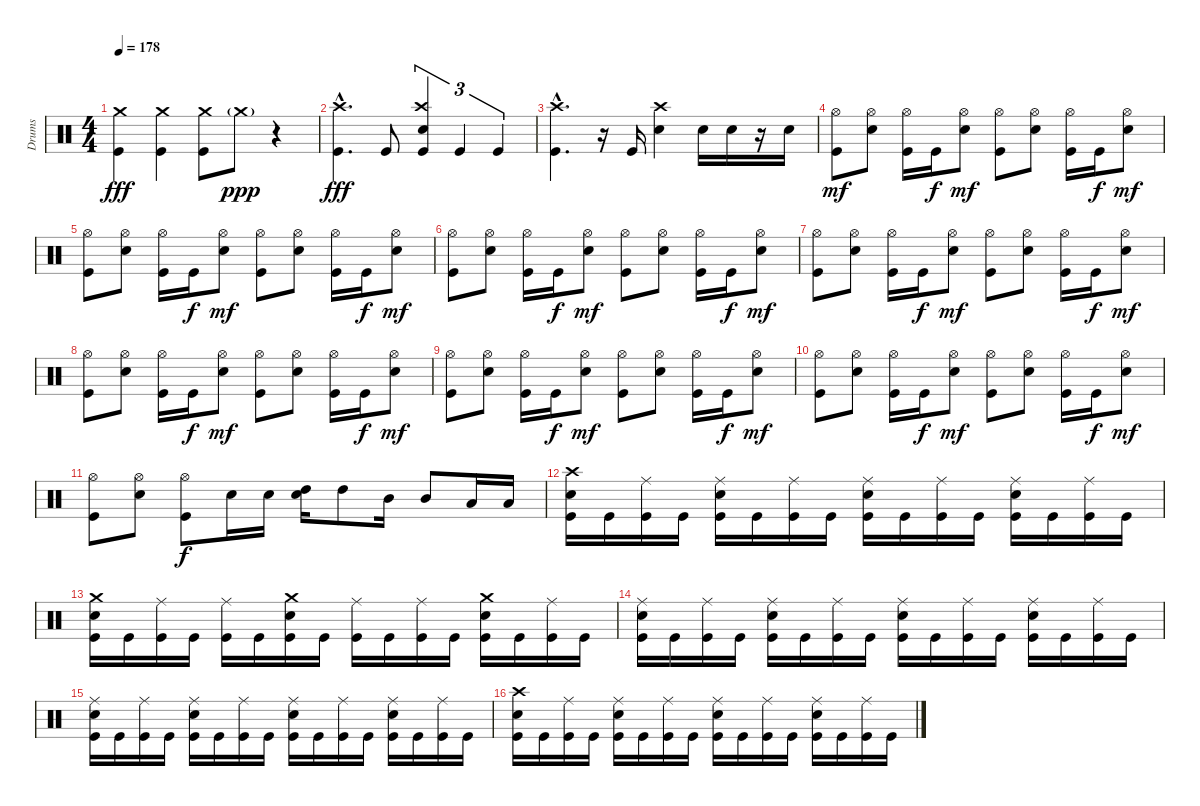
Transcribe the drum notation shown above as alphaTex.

\track ("Drums" "Drums") {instrument percussion}
\staff {score}
\articulation defaults
\ts (4 4)
\tempo 178
\clef neutral
\ks c
("Crash medium (hit)" "Kick (hit)").4{dy fff} ("Crash medium (hit)" "Kick (hit)").4 ("Crash medium (hit)" "Kick (hit)").8 "Crash medium (hit)"{g}.8{dy ppp} r.4 |
("Crash high (hit)"{hac} "Kick (hit)"{hac}).4{d dy fff} "Kick (hit)".8 ("Crash high (hit)" "Electric Snare (hit)" "Kick (hit)").4{tu (3 2)} "Kick (hit)".4{tu (3 2)} "Kick (hit)".4{tu (3 2)} |
("Crash high (hit)"{hac} "Kick (hit)"{hac}).4{d} r.16 "Kick (hit)".16 ("Crash high (hit)" "Electric Snare (hit)").4 "Electric Snare (hit)".16 "Electric Snare (hit)".16 r.16 "Electric Snare (hit)".16 |
("Hi-Hat (open)" "Kick (hit)").8{dy mf} ("Hi-Hat (open)" "Electric Snare (hit)").8 ("Hi-Hat (open)" "Kick (hit)").16 "Kick (hit)".16{dy f} ("Hi-Hat (open)" "Electric Snare (hit)").8{dy mf} ("Hi-Hat (open)" "Kick (hit)").8 ("Hi-Hat (open)" "Electric Snare (hit)").8 ("Hi-Hat (open)" "Kick (hit)").16 "Kick (hit)".16{dy f} ("Hi-Hat (open)" "Electric Snare (hit)").8{dy mf} |
("Hi-Hat (open)" "Kick (hit)").8 ("Hi-Hat (open)" "Electric Snare (hit)").8 ("Hi-Hat (open)" "Kick (hit)").16 "Kick (hit)".16{dy f} ("Hi-Hat (open)" "Electric Snare (hit)").8{dy mf} ("Hi-Hat (open)" "Kick (hit)").8 ("Hi-Hat (open)" "Electric Snare (hit)").8 ("Hi-Hat (open)" "Kick (hit)").16 "Kick (hit)".16{dy f} ("Hi-Hat (open)" "Electric Snare (hit)").8{dy mf} |
("Hi-Hat (open)" "Kick (hit)").8 ("Hi-Hat (open)" "Electric Snare (hit)").8 ("Hi-Hat (open)" "Kick (hit)").16 "Kick (hit)".16{dy f} ("Hi-Hat (open)" "Electric Snare (hit)").8{dy mf} ("Hi-Hat (open)" "Kick (hit)").8 ("Hi-Hat (open)" "Electric Snare (hit)").8 ("Hi-Hat (open)" "Kick (hit)").16 "Kick (hit)".16{dy f} ("Hi-Hat (open)" "Electric Snare (hit)").8{dy mf} |
("Hi-Hat (open)" "Kick (hit)").8 ("Hi-Hat (open)" "Electric Snare (hit)").8 ("Hi-Hat (open)" "Kick (hit)").16 "Kick (hit)".16{dy f} ("Hi-Hat (open)" "Electric Snare (hit)").8{dy mf} ("Hi-Hat (open)" "Kick (hit)").8 ("Hi-Hat (open)" "Electric Snare (hit)").8 ("Hi-Hat (open)" "Kick (hit)").16 "Kick (hit)".16{dy f} ("Hi-Hat (open)" "Electric Snare (hit)").8{dy mf} |
("Hi-Hat (open)" "Kick (hit)").8 ("Hi-Hat (open)" "Electric Snare (hit)").8 ("Hi-Hat (open)" "Kick (hit)").16 "Kick (hit)".16{dy f} ("Hi-Hat (open)" "Electric Snare (hit)").8{dy mf} ("Hi-Hat (open)" "Kick (hit)").8 ("Hi-Hat (open)" "Electric Snare (hit)").8 ("Hi-Hat (open)" "Kick (hit)").16 "Kick (hit)".16{dy f} ("Hi-Hat (open)" "Electric Snare (hit)").8{dy mf} |
("Hi-Hat (open)" "Kick (hit)").8 ("Hi-Hat (open)" "Electric Snare (hit)").8 ("Hi-Hat (open)" "Kick (hit)").16 "Kick (hit)".16{dy f} ("Hi-Hat (open)" "Electric Snare (hit)").8{dy mf} ("Hi-Hat (open)" "Kick (hit)").8 ("Hi-Hat (open)" "Electric Snare (hit)").8 ("Hi-Hat (open)" "Kick (hit)").16 "Kick (hit)".16{dy f} ("Hi-Hat (open)" "Electric Snare (hit)").8{dy mf} |
("Hi-Hat (open)" "Kick (hit)").8 ("Hi-Hat (open)" "Electric Snare (hit)").8 ("Hi-Hat (open)" "Kick (hit)").16 "Kick (hit)".16{dy f} ("Hi-Hat (open)" "Electric Snare (hit)").8{dy mf} ("Hi-Hat (open)" "Kick (hit)").8 ("Hi-Hat (open)" "Electric Snare (hit)").8 ("Hi-Hat (open)" "Kick (hit)").16 "Kick (hit)".16{dy f} ("Hi-Hat (open)" "Electric Snare (hit)").8{dy mf} |
("Hi-Hat (open)" "Kick (hit)").8 ("Hi-Hat (open)" "Electric Snare (hit)").8 ("Hi-Hat (open)" "Kick (hit)").8{dy f} "Electric Snare (hit)".16 "Electric Snare (hit)".16 ("Electric Snare (hit)" "High Tom (hit)").16 "High Tom (hit)".8 "Mid Tom (hit)".16 "Mid Tom (hit)".8 "Low Tom (hit)".16 "Low Tom (hit)".16 |
("Crash high (hit)" "Electric Snare (hit)" "Kick (hit)").16 "Kick (hit)".16 ("Ride (middle)" "Kick (hit)").16 "Kick (hit)".16 ("Ride (middle)" "Electric Snare (hit)" "Kick (hit)").16 "Kick (hit)".16 ("Ride (middle)" "Kick (hit)").16 "Kick (hit)".16 ("Ride (middle)" "Electric Snare (hit)" "Kick (hit)").16 "Kick (hit)".16 ("Ride (middle)" "Kick (hit)").16 "Kick (hit)".16 ("Ride (middle)" "Electric Snare (hit)" "Kick (hit)").16 "Kick (hit)".16 ("Ride (middle)" "Kick (hit)").16 "Kick (hit)".16 |
("Crash medium (hit)" "Electric Snare (hit)" "Kick (hit)").16 "Kick (hit)".16 ("Ride (middle)" "Kick (hit)").16 "Kick (hit)".16 ("Ride (middle)" "Kick (hit)").16 "Kick (hit)".16 ("Crash medium (hit)" "Electric Snare (hit)" "Kick (hit)").16 "Kick (hit)".16 ("Ride (middle)" "Kick (hit)").16 "Kick (hit)".16 ("Ride (middle)" "Kick (hit)").16 "Kick (hit)".16 ("Crash medium (hit)" "Electric Snare (hit)" "Kick (hit)").16 "Kick (hit)".16 ("Ride (middle)" "Kick (hit)").16 "Kick (hit)".16 |
("Ride (middle)" "Electric Snare (hit)" "Kick (hit)").16 "Kick (hit)".16 ("Ride (middle)" "Kick (hit)").16 "Kick (hit)".16 ("Ride (middle)" "Electric Snare (hit)" "Kick (hit)").16 "Kick (hit)".16 ("Ride (middle)" "Kick (hit)").16 "Kick (hit)".16 ("Ride (middle)" "Electric Snare (hit)" "Kick (hit)").16 "Kick (hit)".16 ("Ride (middle)" "Kick (hit)").16 "Kick (hit)".16 ("Ride (middle)" "Electric Snare (hit)" "Kick (hit)").16 "Kick (hit)".16 ("Ride (middle)" "Kick (hit)").16 "Kick (hit)".16 |
("Ride (middle)" "Electric Snare (hit)" "Kick (hit)").16 "Kick (hit)".16 ("Ride (middle)" "Kick (hit)").16 "Kick (hit)".16 ("Ride (middle)" "Electric Snare (hit)" "Kick (hit)").16 "Kick (hit)".16 ("Ride (middle)" "Kick (hit)").16 "Kick (hit)".16 ("Ride (middle)" "Electric Snare (hit)" "Kick (hit)").16 "Kick (hit)".16 ("Ride (middle)" "Kick (hit)").16 "Kick (hit)".16 ("Ride (middle)" "Electric Snare (hit)" "Kick (hit)").16 "Kick (hit)".16 ("Ride (middle)" "Kick (hit)").16 "Kick (hit)".16 |
("Crash high (hit)" "Electric Snare (hit)" "Kick (hit)").16 "Kick (hit)".16 ("Ride (middle)" "Kick (hit)").16 "Kick (hit)".16 ("Ride (middle)" "Electric Snare (hit)" "Kick (hit)").16 "Kick (hit)".16 ("Ride (middle)" "Kick (hit)").16 "Kick (hit)".16 ("Ride (middle)" "Electric Snare (hit)" "Kick (hit)").16 "Kick (hit)".16 ("Ride (middle)" "Kick (hit)").16 "Kick (hit)".16 ("Ride (middle)" "Electric Snare (hit)" "Kick (hit)").16 "Kick (hit)".16 ("Ride (middle)" "Kick (hit)").16 "Kick (hit)".16
